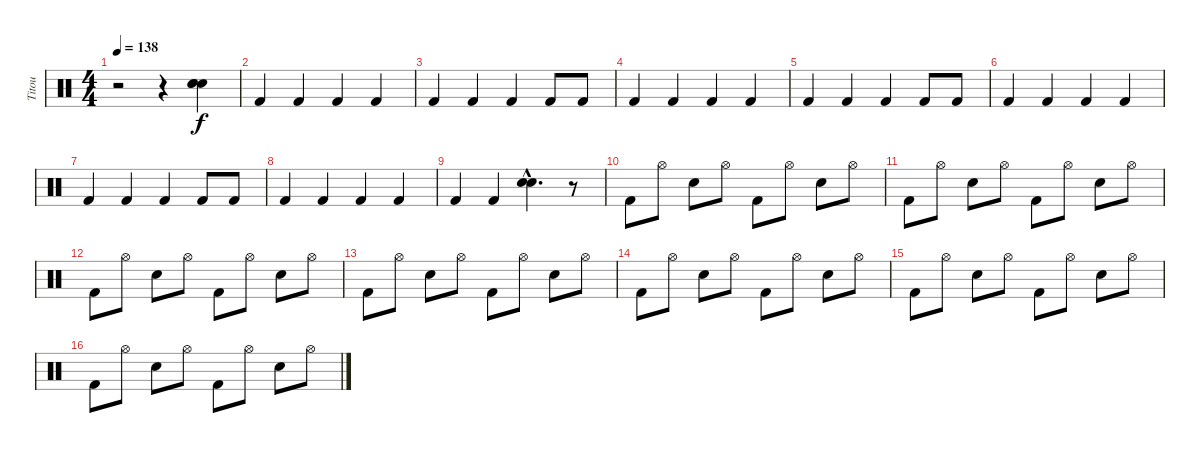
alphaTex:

\track ("Titou" "Titou") {instrument percussion}
\staff {score}
\articulation defaults
\ts (4 4)
\tempo 138
\clef neutral
\ks c
r.2{dy f} r.4 ("Electric Snare (hit)" "Electric Snare (hit)" "Electric Snare (hit)").4 |
"Kick (hit) 2".4 "Kick (hit) 2".4 "Kick (hit) 2".4 "Kick (hit) 2".4 |
"Kick (hit) 2".4 "Kick (hit) 2".4 "Kick (hit) 2".4 "Kick (hit) 2".8 "Kick (hit) 2".8 |
"Kick (hit) 2".4 "Kick (hit) 2".4 "Kick (hit) 2".4 "Kick (hit) 2".4 |
"Kick (hit) 2".4 "Kick (hit) 2".4 "Kick (hit) 2".4 "Kick (hit) 2".8 "Kick (hit) 2".8 |
"Kick (hit) 2".4 "Kick (hit) 2".4 "Kick (hit) 2".4 "Kick (hit) 2".4 |
"Kick (hit) 2".4 "Kick (hit) 2".4 "Kick (hit) 2".4 "Kick (hit) 2".8 "Kick (hit) 2".8 |
"Kick (hit) 2".4 "Kick (hit) 2".4 "Kick (hit) 2".4 "Kick (hit) 2".4 |
"Kick (hit) 2".4 "Kick (hit) 2".4 ("Electric Snare (hit)"{hac} "Electric Snare (hit)"{hac}).4{d} r.8 |
"Kick (hit) 2".8 "Hi-Hat (open)".8 "Electric Snare (hit)".8 "Hi-Hat (open)".8 "Kick (hit) 2".8 "Hi-Hat (open)".8 "Electric Snare (hit)".8 "Hi-Hat (open)".8 |
"Kick (hit) 2".8 "Hi-Hat (open)".8 "Electric Snare (hit)".8 "Hi-Hat (open)".8 "Kick (hit) 2".8 "Hi-Hat (open)".8 "Electric Snare (hit)".8 "Hi-Hat (open)".8 |
"Kick (hit) 2".8 "Hi-Hat (open)".8 "Electric Snare (hit)".8 "Hi-Hat (open)".8 "Kick (hit) 2".8 "Hi-Hat (open)".8 "Electric Snare (hit)".8 "Hi-Hat (open)".8 |
"Kick (hit) 2".8 "Hi-Hat (open)".8 "Electric Snare (hit)".8 "Hi-Hat (open)".8 "Kick (hit) 2".8 "Hi-Hat (open)".8 "Electric Snare (hit)".8 "Hi-Hat (open)".8 |
"Kick (hit) 2".8 "Hi-Hat (open)".8 "Electric Snare (hit)".8 "Hi-Hat (open)".8 "Kick (hit) 2".8 "Hi-Hat (open)".8 "Electric Snare (hit)".8 "Hi-Hat (open)".8 |
"Kick (hit) 2".8 "Hi-Hat (open)".8 "Electric Snare (hit)".8 "Hi-Hat (open)".8 "Kick (hit) 2".8 "Hi-Hat (open)".8 "Electric Snare (hit)".8 "Hi-Hat (open)".8 |
"Kick (hit) 2".8 "Hi-Hat (open)".8 "Electric Snare (hit)".8 "Hi-Hat (open)".8 "Kick (hit) 2".8 "Hi-Hat (open)".8 "Electric Snare (hit)".8 "Hi-Hat (open)".8
